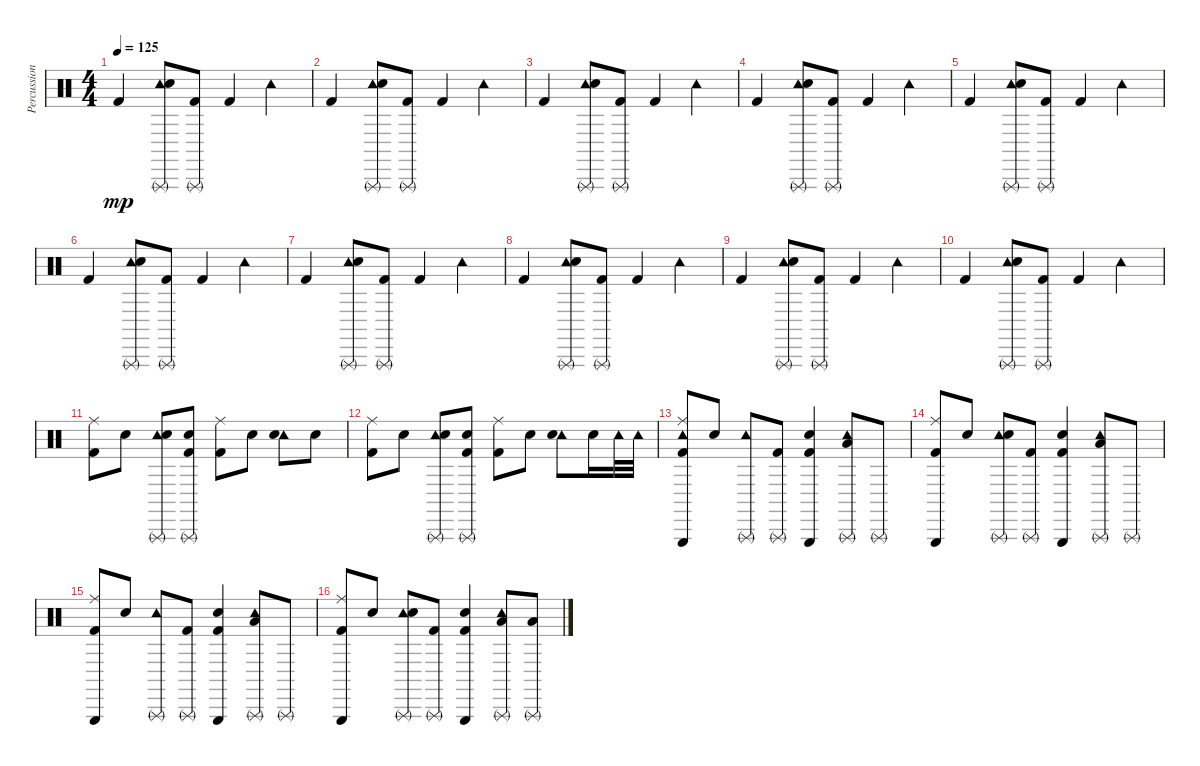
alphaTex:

\track ("Percussion" "Percussion") {instrument percussion}
\staff {score}
\articulation defaults
\ts (4 4)
\tempo 125
\clef neutral
\ks c "Kick (hit) 2".4{dy mp}
("Triangle (rnute)" "Tambourine (hit)" "Snare (hit) 2").8 ("Triangle (rnute)" "Kick (hit) 2").8 "Kick (hit) 2".4 "Tambourine (hit)".4 |
"Kick (hit) 2".4 ("Triangle (rnute)" "Tambourine (hit)" "Snare (hit) 2").8 ("Triangle (rnute)" "Kick (hit) 2").8 "Kick (hit) 2".4 "Tambourine (hit)".4 |
"Kick (hit) 2".4 ("Triangle (rnute)" "Tambourine (hit)" "Snare (hit) 2").8 ("Triangle (rnute)" "Kick (hit) 2").8 "Kick (hit) 2".4 "Tambourine (hit)".4 |
"Kick (hit) 2".4 ("Triangle (rnute)" "Tambourine (hit)" "Snare (hit) 2").8 ("Triangle (rnute)" "Kick (hit) 2").8 "Kick (hit) 2".4 "Tambourine (hit)".4 |
"Kick (hit) 2".4 ("Triangle (rnute)" "Tambourine (hit)" "Snare (hit) 2").8 ("Triangle (rnute)" "Kick (hit) 2").8 "Kick (hit) 2".4 "Tambourine (hit)".4 |
"Kick (hit) 2".4 ("Triangle (rnute)" "Tambourine (hit)" "Snare (hit) 2").8 ("Triangle (rnute)" "Kick (hit) 2").8 "Kick (hit) 2".4 "Tambourine (hit)".4 |
"Kick (hit) 2".4 ("Triangle (rnute)" "Tambourine (hit)" "Snare (hit) 2").8 ("Triangle (rnute)" "Kick (hit) 2").8 "Kick (hit) 2".4 "Tambourine (hit)".4 |
"Kick (hit) 2".4 ("Triangle (rnute)" "Tambourine (hit)" "Snare (hit) 2").8 ("Triangle (rnute)" "Kick (hit) 2").8 "Kick (hit) 2".4 "Tambourine (hit)".4 |
"Kick (hit) 2".4 ("Triangle (rnute)" "Tambourine (hit)" "Snare (hit) 2").8 ("Triangle (rnute)" "Kick (hit) 2").8 "Kick (hit) 2".4 "Tambourine (hit)".4 |
"Kick (hit) 2".4 ("Triangle (rnute)" "Tambourine (hit)" "Snare (hit) 2").8 ("Triangle (rnute)" "Kick (hit) 2").8 "Kick (hit) 2".4 "Tambourine (hit)".4 |
("Ride (middle)" "Kick (hit) 2").8 "Snare (hit) 2".8 ("Triangle (rnute)" "Tambourine (hit)" "Snare (hit) 2").8 ("Triangle (rnute)" "Kick (hit) 2" "Snare (hit) 2").8 ("Ride (middle)" "Kick (hit) 2").8 "Snare (hit) 2".8 ("Tambourine (hit)" "Snare (hit) 2").8 "Snare (hit) 2".8 |
("Ride (middle)" "Kick (hit) 2").8 "Snare (hit) 2".8 ("Triangle (rnute)" "Tambourine (hit)" "Snare (hit) 2").8 ("Triangle (rnute)" "Kick (hit) 2" "Snare (hit) 2").8 ("Ride (middle)" "Kick (hit) 2").8 "Snare (hit) 2".8 ("Tambourine (hit)" "Snare (hit) 2").8 "Snare (hit) 2".16 "Tambourine (hit)".32 "Tambourine (hit)".32 |
("Triangle (hit)" "Tambourine (hit)" "Ride (middle)" "Kick (hit) 2").8 "Snare (hit) 2".8 ("Triangle (rnute)" "Tambourine (hit)").8 ("Triangle (rnute)" "Kick (hit) 2").8 ("Triangle (hit)" "Kick (hit) 2" "Snare (hit) 2").4 ("Tambourine (hit)" "Low Tom (hit)" "Triangle (rnute)").8 "Triangle (rnute)".8 |
("Triangle (hit)" "Ride (middle)" "Kick (hit) 2").8 "Snare (hit) 2".8 ("Triangle (rnute)" "Tambourine (hit)" "Snare (hit) 2").8 ("Triangle (rnute)" "Kick (hit) 2").8 ("Triangle (hit)" "Kick (hit) 2" "Snare (hit) 2").4 ("Tambourine (hit)" "Low Tom (hit)" "Triangle (rnute)").8 "Triangle (rnute)".8 |
("Triangle (hit)" "Ride (middle)" "Kick (hit) 2").8 "Snare (hit) 2".8 ("Triangle (rnute)" "Tambourine (hit)").8 ("Triangle (rnute)" "Kick (hit) 2").8 ("Triangle (hit)" "Kick (hit) 2" "Snare (hit) 2").4 ("Tambourine (hit)" "Low Tom (hit)" "Triangle (rnute)").8 "Triangle (rnute)".8 |
("Triangle (hit)" "Ride (middle)" "Kick (hit) 2").8 "Snare (hit) 2".8 ("Triangle (rnute)" "Tambourine (hit)" "Snare (hit) 2").8 ("Triangle (rnute)" "Kick (hit) 2").8 ("Triangle (hit)" "Kick (hit) 2" "Snare (hit) 2").4 ("Tambourine (hit)" "Triangle (rnute)" "Low Tom (hit)").8 ("Low Tom (hit)" "Triangle (rnute)").8
